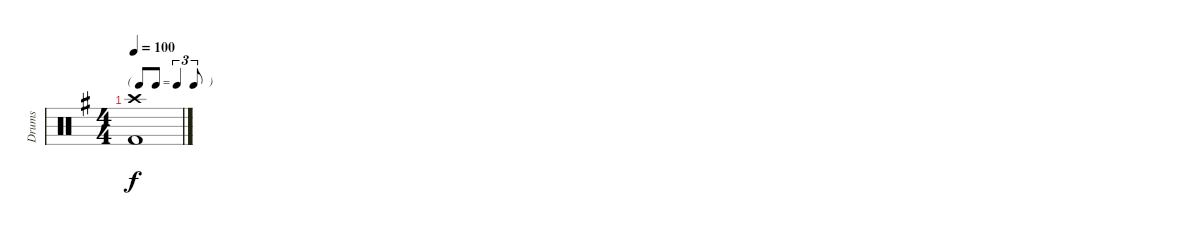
\track ("Drums" "Drums") {instrument percussion}
\staff {score}
\articulation defaults
\ts (4 4)
\tf triplet8th
\tempo 100
\clef neutral
\ks g
("Crash high (hit)" "Kick (hit) 2").1{dy f}
